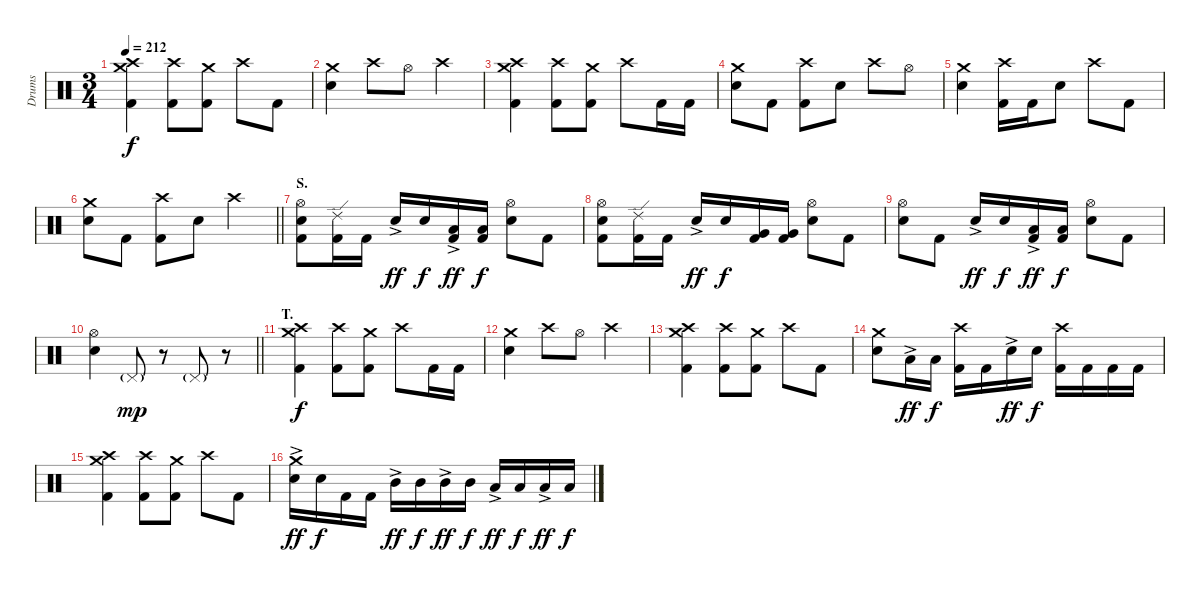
\track ("Drums" "Drums") {instrument percussion}
\staff {score}
\articulation defaults
\ts (3 4)
\tempo 212
\clef neutral
\ks c
("Crash medium (hit)" "Crash high (hit)" "Kick (hit) 2").4{dy f} ("Crash high (hit)" "Kick (hit) 2").8 ("Crash medium (hit)" "Kick (hit) 2").8 "Crash high (hit)".8 "Kick (hit) 2".8 |
("Crash medium (hit)" "Electric Snare (hit)").4 "Crash high (hit)".8 "Hi-Hat (open)".8 "Crash high (hit)".4 |
("Crash medium (hit)" "Crash high (hit)" "Kick (hit) 2").4 ("Crash high (hit)" "Kick (hit) 2").8 ("Crash medium (hit)" "Kick (hit) 2").8 "Crash high (hit)".8 "Kick (hit) 2".16 "Kick (hit) 2".16 |
("Crash medium (hit)" "Electric Snare (hit)").8 "Kick (hit) 2".8 ("Crash high (hit)" "Kick (hit) 2").8 "Electric Snare (hit)".8 "Crash high (hit)".8 "Hi-Hat (open)".8 |
("Crash medium (hit)" "Electric Snare (hit)").4 ("Crash high (hit)" "Kick (hit) 2").16 "Kick (hit) 2".16 "Electric Snare (hit)".8 "Crash high (hit)".8 "Kick (hit) 2".8 |
\barLineRight lightlight
("Crash medium (hit)" "Electric Snare (hit)").8 "Kick (hit) 2".8 ("Crash high (hit)" "Kick (hit) 2").8 "Electric Snare (hit)".8 "Crash high (hit)".4 |
\section ("" "S.")
("Hi-Hat (open)" "Electric Snare (hit)" "Kick (hit) 2").8 ("Ride (edge) 2" "Kick (hit) 2").16 "Kick (hit) 2".16 "Electric Snare (hit)"{ac}.16{dy ff} "Electric Snare (hit)".16{dy f} ("Low Tom (hit)"{ac} "Kick (hit) 2").16{dy ff} ("Low Tom (hit)" "Kick (hit) 2").16{dy f} ("Hi-Hat (open)" "Electric Snare (hit)").8 "Kick (hit) 2".8 |
("Hi-Hat (open)" "Electric Snare (hit)" "Kick (hit) 2").8 ("Ride (edge) 2" "Kick (hit) 2").16 "Kick (hit) 2".16 "Electric Snare (hit)"{ac}.16{dy ff} "Electric Snare (hit)".16{dy f} ("Very Low Tom (hit)" "Kick (hit) 2").16 ("Very Low Tom (hit)" "Kick (hit) 2").16 ("Hi-Hat (open)" "Electric Snare (hit)").8 "Kick (hit) 2".8 |
("Hi-Hat (open)" "Electric Snare (hit)").8 "Kick (hit) 2".8 "Electric Snare (hit)"{ac}.16{dy ff} "Electric Snare (hit)".16{dy f} ("Low Tom (hit)"{ac} "Kick (hit) 2").16{dy ff} ("Low Tom (hit)" "Kick (hit) 2").16{dy f} ("Hi-Hat (open)" "Electric Snare (hit)").8 "Kick (hit) 2".8 |
\barLineRight lightlight
("Hi-Hat (open)" "Electric Snare (hit)").4 "Pedal Hi-Hat (hit)"{g}.8{dy mp} r.8 "Pedal Hi-Hat (hit)"{g}.8 r.8 |
\section ("" "T.")
("Crash medium (hit)" "Crash high (hit)" "Kick (hit) 2").4{dy f} ("Crash high (hit)" "Kick (hit) 2").8 ("Crash medium (hit)" "Kick (hit) 2").8 "Crash high (hit)".8 "Kick (hit) 2".16 "Kick (hit) 2".16 |
("Crash medium (hit)" "Electric Snare (hit)").4 "Crash high (hit)".8 "Hi-Hat (open)".8 "Crash high (hit)".4 |
("Crash medium (hit)" "Crash high (hit)" "Kick (hit) 2").4 ("Crash high (hit)" "Kick (hit) 2").8 ("Crash medium (hit)" "Kick (hit) 2").8 "Crash high (hit)".8 "Kick (hit) 2".8 |
("Crash medium (hit)" "Electric Snare (hit)").8 "Low Tom (hit)"{ac}.16{dy ff} "Low Tom (hit)".16{dy f} ("Crash high (hit)" "Kick (hit) 2").16 "Kick (hit) 2".16 "Electric Snare (hit)"{ac}.16{dy ff} "Electric Snare (hit)".16{dy f} ("Crash high (hit)" "Kick (hit) 2").16 "Kick (hit) 2".16 "Kick (hit) 2".16 "Kick (hit) 2".16 |
("Crash medium (hit)" "Crash high (hit)" "Kick (hit) 2").4 ("Crash high (hit)" "Kick (hit) 2").8 ("Crash medium (hit)" "Kick (hit) 2").8 "Crash high (hit)".8 "Kick (hit) 2".8 |
("Crash medium (hit)" "Electric Snare (hit)"{ac}).16{dy ff} "Electric Snare (hit)".16{dy f} "Kick (hit) 2".16 "Kick (hit) 2".16 "Mid Tom (hit)"{ac}.16{dy ff} "Mid Tom (hit)".16{dy f} "Mid Tom (hit)"{ac}.16{dy ff} "Mid Tom (hit)".16{dy f} "Low Tom (hit)"{ac}.16{dy ff} "Low Tom (hit)".16{dy f} "Low Tom (hit)"{ac}.16{dy ff} "Low Tom (hit)".16{dy f}
